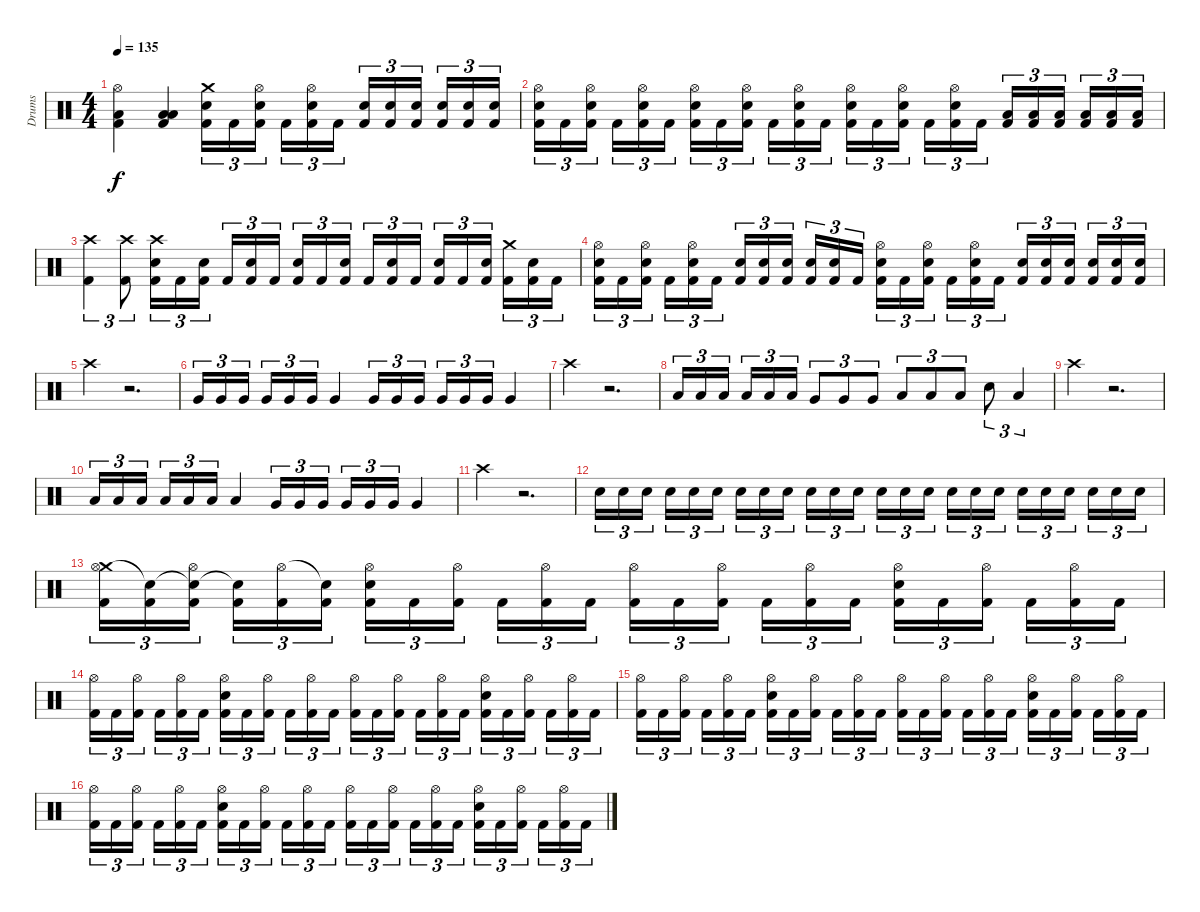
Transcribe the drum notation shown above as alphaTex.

\track ("Drums" "Drums") {instrument percussion}
\staff {score}
\articulation defaults
\ts (4 4)
\tempo 135
\clef neutral
\ks c
("Hi-Hat (open)" "Low Floor Tom (hit)" "Kick (hit) 2").4{dy f} ("Low Floor Tom (hit)" "Low Floor Tom (hit)" "Kick (hit) 2").4 ("Crash medium (hit)" "Electric Snare (hit)" "Kick (hit) 2").16{tu (3 2)} "Kick (hit) 2".16{tu (3 2)} ("Hi-Hat (open)" "Electric Snare (hit)" "Kick (hit) 2").16{tu (3 2)} "Kick (hit) 2".16{tu (3 2)} ("Hi-Hat (open)" "Electric Snare (hit)" "Kick (hit) 2").16{tu (3 2)} "Kick (hit) 2".16{tu (3 2)} ("Electric Snare (hit)" "Kick (hit) 2").16{tu (3 2)} ("Electric Snare (hit)" "Kick (hit) 2").16{tu (3 2)} ("Electric Snare (hit)" "Kick (hit) 2").16{tu (3 2)} ("Electric Snare (hit)" "Kick (hit) 2").16{tu (3 2)} ("Electric Snare (hit)" "Kick (hit) 2").16{tu (3 2)} ("Electric Snare (hit)" "Kick (hit) 2").16{tu (3 2)} |
("Hi-Hat (open)" "Electric Snare (hit)" "Kick (hit) 2").16{tu (3 2)} "Kick (hit) 2".16{tu (3 2)} ("Hi-Hat (open)" "Electric Snare (hit)" "Kick (hit) 2").16{tu (3 2)} "Kick (hit) 2".16{tu (3 2)} ("Hi-Hat (open)" "Electric Snare (hit)" "Kick (hit) 2").16{tu (3 2)} "Kick (hit) 2".16{tu (3 2)} ("Hi-Hat (open)" "Electric Snare (hit)" "Kick (hit) 2").16{tu (3 2)} "Kick (hit) 2".16{tu (3 2)} ("Hi-Hat (open)" "Electric Snare (hit)" "Kick (hit) 2").16{tu (3 2)} "Kick (hit) 2".16{tu (3 2)} ("Hi-Hat (open)" "Electric Snare (hit)" "Kick (hit) 2").16{tu (3 2)} "Kick (hit) 2".16{tu (3 2)} ("Hi-Hat (open)" "Electric Snare (hit)" "Kick (hit) 2").16{tu (3 2)} "Kick (hit) 2".16{tu (3 2)} ("Hi-Hat (open)" "Electric Snare (hit)" "Kick (hit) 2").16{tu (3 2)} "Kick (hit) 2".16{tu (3 2)} ("Hi-Hat (open)" "Electric Snare (hit)" "Kick (hit) 2").16{tu (3 2)} "Kick (hit) 2".16{tu (3 2)} ("Low Floor Tom (hit)" "Kick (hit) 2").16{tu (3 2)} ("Low Floor Tom (hit)" "Kick (hit) 2").16{tu (3 2)} ("Low Floor Tom (hit)" "Kick (hit) 2").16{tu (3 2)} ("Low Floor Tom (hit)" "Kick (hit) 2").16{tu (3 2)} ("Low Floor Tom (hit)" "Kick (hit) 2").16{tu (3 2)} ("Low Floor Tom (hit)" "Kick (hit) 2").16{tu (3 2)} |
("Crash high (hit)" "Kick (hit) 2").4{tu (3 2)} ("Crash high (hit)" "Kick (hit) 2").8{tu (3 2)} ("Crash high (hit)" "Electric Snare (hit)" "Kick (hit) 2").16{tu (3 2)} "Kick (hit) 2".16{tu (3 2)} ("Electric Snare (hit)" "Kick (hit) 2").16{tu (3 2)} "Kick (hit) 2".16{tu (3 2)} ("Electric Snare (hit)" "Kick (hit) 2").16{tu (3 2)} "Kick (hit) 2".16{tu (3 2)} ("Electric Snare (hit)" "Kick (hit) 2").16{tu (3 2)} "Kick (hit) 2".16{tu (3 2)} ("Electric Snare (hit)" "Kick (hit) 2").16{tu (3 2)} "Kick (hit) 2".16{tu (3 2)} ("Electric Snare (hit)" "Kick (hit) 2").16{tu (3 2)} "Kick (hit) 2".16{tu (3 2)} ("Electric Snare (hit)" "Kick (hit) 2").16{tu (3 2)} "Kick (hit) 2".16{tu (3 2)} ("Electric Snare (hit)" "Kick (hit) 2").16{tu (3 2)} ("Crash medium (hit)" "Kick (hit) 2").16{tu (3 2)} ("Electric Snare (hit)" "Kick (hit) 2").16{tu (3 2)} "Kick (hit) 2".16{tu (3 2)} |
("Hi-Hat (open)" "Electric Snare (hit)" "Kick (hit) 2").16{tu (3 2)} "Kick (hit) 2".16{tu (3 2)} ("Hi-Hat (open)" "Electric Snare (hit)" "Kick (hit) 2").16{tu (3 2)} "Kick (hit) 2".16{tu (3 2)} ("Hi-Hat (open)" "Electric Snare (hit)" "Kick (hit) 2").16{tu (3 2)} "Kick (hit) 2".16{tu (3 2)} ("Electric Snare (hit)" "Kick (hit) 2").16{tu (3 2)} ("Electric Snare (hit)" "Kick (hit) 2").16{tu (3 2)} ("Electric Snare (hit)" "Kick (hit) 2").16{tu (3 2)} ("Electric Snare (hit)" "Kick (hit) 2").16{tu (3 2)} ("Electric Snare (hit)" "Kick (hit) 2").16{tu (3 2)} "Kick (hit) 2".16{tu (3 2)} ("Hi-Hat (open)" "Electric Snare (hit)" "Kick (hit) 2").16{tu (3 2)} "Kick (hit) 2".16{tu (3 2)} ("Hi-Hat (open)" "Electric Snare (hit)" "Kick (hit) 2").16{tu (3 2)} "Kick (hit) 2".16{tu (3 2)} ("Hi-Hat (open)" "Electric Snare (hit)" "Kick (hit) 2").16{tu (3 2)} "Kick (hit) 2".16{tu (3 2)} ("Electric Snare (hit)" "Kick (hit) 2").16{tu (3 2)} ("Electric Snare (hit)" "Kick (hit) 2").16{tu (3 2)} ("Electric Snare (hit)" "Kick (hit) 2").16{tu (3 2)} ("Electric Snare (hit)" "Kick (hit) 2").16{tu (3 2)} ("Electric Snare (hit)" "Kick (hit) 2").16{tu (3 2)} ("Electric Snare (hit)" "Kick (hit) 2").16{tu (3 2)} |
"Crash high (hit)".4 r.2{d} |
"Very Low Tom (hit)".16{tu (3 2)} "Very Low Tom (hit)".16{tu (3 2)} "Very Low Tom (hit)".16{tu (3 2)} "Very Low Tom (hit)".16{tu (3 2)} "Very Low Tom (hit)".16{tu (3 2)} "Very Low Tom (hit)".16{tu (3 2)} "Very Low Tom (hit)".4 "Very Low Tom (hit)".16{tu (3 2)} "Very Low Tom (hit)".16{tu (3 2)} "Very Low Tom (hit)".16{tu (3 2)} "Very Low Tom (hit)".16{tu (3 2)} "Very Low Tom (hit)".16{tu (3 2)} "Very Low Tom (hit)".16{tu (3 2)} "Very Low Tom (hit)".4 |
"Crash high (hit)".4 r.2{d} |
"Low Tom (hit)".16{tu (3 2)} "Low Tom (hit)".16{tu (3 2)} "Low Tom (hit)".16{tu (3 2)} "Low Tom (hit)".16{tu (3 2)} "Low Tom (hit)".16{tu (3 2)} "Low Tom (hit)".16{tu (3 2)} "Very Low Tom (hit)".8{tu (3 2)} "Very Low Tom (hit)".8{tu (3 2)} "Very Low Tom (hit)".8{tu (3 2)} "Low Floor Tom (hit)".8{tu (3 2)} "Low Floor Tom (hit)".8{tu (3 2)} "Low Floor Tom (hit)".8{tu (3 2)} "Electric Snare (hit)".8{tu (3 2)} "Low Floor Tom (hit)".4{tu (3 2)} |
"Crash high (hit)".4 r.2{d} |
"Low Tom (hit)".16{tu (3 2)} "Low Tom (hit)".16{tu (3 2)} "Low Tom (hit)".16{tu (3 2)} "Low Tom (hit)".16{tu (3 2)} "Low Tom (hit)".16{tu (3 2)} "Low Tom (hit)".16{tu (3 2)} "Low Tom (hit)".4 "Very Low Tom (hit)".16{tu (3 2)} "Very Low Tom (hit)".16{tu (3 2)} "Very Low Tom (hit)".16{tu (3 2)} "Very Low Tom (hit)".16{tu (3 2)} "Very Low Tom (hit)".16{tu (3 2)} "Very Low Tom (hit)".16{tu (3 2)} "Very Low Tom (hit)".4 |
"Crash high (hit)".4 r.2{d} |
"Electric Snare (hit)".16{tu (3 2)} "Electric Snare (hit)".16{tu (3 2)} "Electric Snare (hit)".16{tu (3 2)} "Electric Snare (hit)".16{tu (3 2)} "Electric Snare (hit)".16{tu (3 2)} "Electric Snare (hit)".16{tu (3 2)} "Electric Snare (hit)".16{tu (3 2)} "Electric Snare (hit)".16{tu (3 2)} "Electric Snare (hit)".16{tu (3 2)} "Electric Snare (hit)".16{tu (3 2)} "Electric Snare (hit)".16{tu (3 2)} "Electric Snare (hit)".16{tu (3 2)} "Electric Snare (hit)".16{tu (3 2)} "Electric Snare (hit)".16{tu (3 2)} "Electric Snare (hit)".16{tu (3 2)} "Electric Snare (hit)".16{tu (3 2)} "Electric Snare (hit)".16{tu (3 2)} "Electric Snare (hit)".16{tu (3 2)} "Electric Snare (hit)".16{tu (3 2)} "Electric Snare (hit)".16{tu (3 2)} "Electric Snare (hit)".16{tu (3 2)} "Electric Snare (hit)".16{tu (3 2)} "Electric Snare (hit)".16{tu (3 2)} "Electric Snare (hit)".16{tu (3 2)} |
("Crash medium (hit)" "Hi-Hat (open)" "Kick (hit) 2").16{tu (3 2)} ("Snare (hit)"{t} "Kick (hit) 2").16{tu (3 2)} ("Snare (hit)"{t} "Hi-Hat (open)" "Kick (hit) 2").16{tu (3 2)} ("Snare (hit)"{t} "Kick (hit) 2").16{tu (3 2)} ("Hi-Hat (open)" "Kick (hit) 2").16{tu (3 2)} ("Snare (hit)"{t} "Kick (hit) 2").16{tu (3 2)} ("Hi-Hat (open)" "Electric Snare (hit)" "Kick (hit) 2").16{tu (3 2)} "Kick (hit) 2".16{tu (3 2)} ("Hi-Hat (open)" "Kick (hit) 2").16{tu (3 2)} "Kick (hit) 2".16{tu (3 2)} ("Hi-Hat (open)" "Kick (hit) 2").16{tu (3 2)} "Kick (hit) 2".16{tu (3 2)} ("Hi-Hat (open)" "Kick (hit) 2").16{tu (3 2)} "Kick (hit) 2".16{tu (3 2)} ("Hi-Hat (open)" "Kick (hit) 2").16{tu (3 2)} "Kick (hit) 2".16{tu (3 2)} ("Hi-Hat (open)" "Kick (hit) 2").16{tu (3 2)} "Kick (hit) 2".16{tu (3 2)} ("Hi-Hat (open)" "Electric Snare (hit)" "Kick (hit) 2").16{tu (3 2)} "Kick (hit) 2".16{tu (3 2)} ("Hi-Hat (open)" "Kick (hit) 2").16{tu (3 2)} "Kick (hit) 2".16{tu (3 2)} ("Hi-Hat (open)" "Kick (hit) 2").16{tu (3 2)} "Kick (hit) 2".16{tu (3 2)} |
("Hi-Hat (open)" "Kick (hit) 2").16{tu (3 2)} "Kick (hit) 2".16{tu (3 2)} ("Hi-Hat (open)" "Kick (hit) 2").16{tu (3 2)} "Kick (hit) 2".16{tu (3 2)} ("Hi-Hat (open)" "Kick (hit) 2").16{tu (3 2)} "Kick (hit) 2".16{tu (3 2)} ("Hi-Hat (open)" "Electric Snare (hit)" "Kick (hit) 2").16{tu (3 2)} "Kick (hit) 2".16{tu (3 2)} ("Hi-Hat (open)" "Kick (hit) 2").16{tu (3 2)} "Kick (hit) 2".16{tu (3 2)} ("Hi-Hat (open)" "Kick (hit) 2").16{tu (3 2)} "Kick (hit) 2".16{tu (3 2)} ("Hi-Hat (open)" "Kick (hit) 2").16{tu (3 2)} "Kick (hit) 2".16{tu (3 2)} ("Hi-Hat (open)" "Kick (hit) 2").16{tu (3 2)} "Kick (hit) 2".16{tu (3 2)} ("Hi-Hat (open)" "Kick (hit) 2").16{tu (3 2)} "Kick (hit) 2".16{tu (3 2)} ("Hi-Hat (open)" "Electric Snare (hit)" "Kick (hit) 2").16{tu (3 2)} "Kick (hit) 2".16{tu (3 2)} ("Hi-Hat (open)" "Kick (hit) 2").16{tu (3 2)} "Kick (hit) 2".16{tu (3 2)} ("Hi-Hat (open)" "Kick (hit) 2").16{tu (3 2)} "Kick (hit) 2".16{tu (3 2)} |
("Hi-Hat (open)" "Kick (hit) 2").16{tu (3 2)} "Kick (hit) 2".16{tu (3 2)} ("Hi-Hat (open)" "Kick (hit) 2").16{tu (3 2)} "Kick (hit) 2".16{tu (3 2)} ("Hi-Hat (open)" "Kick (hit) 2").16{tu (3 2)} "Kick (hit) 2".16{tu (3 2)} ("Hi-Hat (open)" "Electric Snare (hit)" "Kick (hit) 2").16{tu (3 2)} "Kick (hit) 2".16{tu (3 2)} ("Hi-Hat (open)" "Kick (hit) 2").16{tu (3 2)} "Kick (hit) 2".16{tu (3 2)} ("Hi-Hat (open)" "Kick (hit) 2").16{tu (3 2)} "Kick (hit) 2".16{tu (3 2)} ("Hi-Hat (open)" "Kick (hit) 2").16{tu (3 2)} "Kick (hit) 2".16{tu (3 2)} ("Hi-Hat (open)" "Kick (hit) 2").16{tu (3 2)} "Kick (hit) 2".16{tu (3 2)} ("Hi-Hat (open)" "Kick (hit) 2").16{tu (3 2)} "Kick (hit) 2".16{tu (3 2)} ("Hi-Hat (open)" "Electric Snare (hit)" "Kick (hit) 2").16{tu (3 2)} "Kick (hit) 2".16{tu (3 2)} ("Hi-Hat (open)" "Kick (hit) 2").16{tu (3 2)} "Kick (hit) 2".16{tu (3 2)} ("Hi-Hat (open)" "Kick (hit) 2").16{tu (3 2)} "Kick (hit) 2".16{tu (3 2)} |
("Hi-Hat (open)" "Kick (hit) 2").16{tu (3 2)} "Kick (hit) 2".16{tu (3 2)} ("Hi-Hat (open)" "Kick (hit) 2").16{tu (3 2)} "Kick (hit) 2".16{tu (3 2)} ("Hi-Hat (open)" "Kick (hit) 2").16{tu (3 2)} "Kick (hit) 2".16{tu (3 2)} ("Hi-Hat (open)" "Electric Snare (hit)" "Kick (hit) 2").16{tu (3 2)} "Kick (hit) 2".16{tu (3 2)} ("Hi-Hat (open)" "Kick (hit) 2").16{tu (3 2)} "Kick (hit) 2".16{tu (3 2)} ("Hi-Hat (open)" "Kick (hit) 2").16{tu (3 2)} "Kick (hit) 2".16{tu (3 2)} ("Hi-Hat (open)" "Kick (hit) 2").16{tu (3 2)} "Kick (hit) 2".16{tu (3 2)} ("Hi-Hat (open)" "Kick (hit) 2").16{tu (3 2)} "Kick (hit) 2".16{tu (3 2)} ("Hi-Hat (open)" "Kick (hit) 2").16{tu (3 2)} "Kick (hit) 2".16{tu (3 2)} ("Hi-Hat (open)" "Electric Snare (hit)" "Kick (hit) 2").16{tu (3 2)} "Kick (hit) 2".16{tu (3 2)} ("Hi-Hat (open)" "Kick (hit) 2").16{tu (3 2)} "Kick (hit) 2".16{tu (3 2)} ("Hi-Hat (open)" "Kick (hit) 2").16{tu (3 2)} "Kick (hit) 2".16{tu (3 2)}
